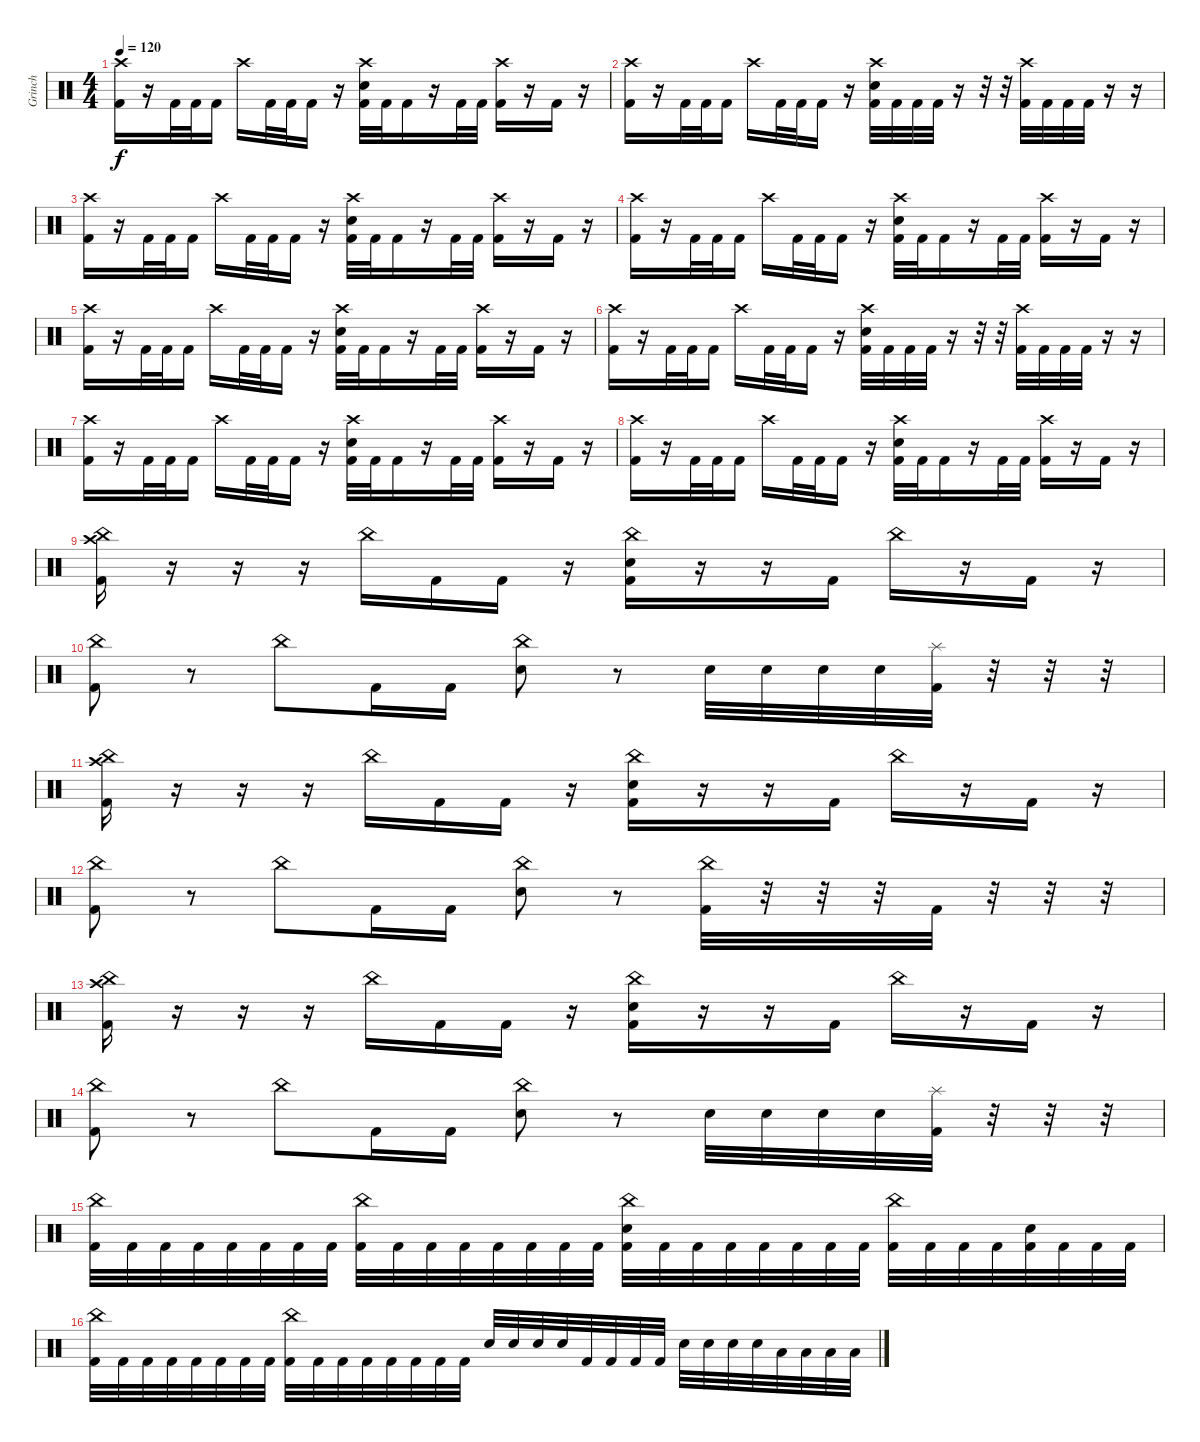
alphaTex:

\track ("Grinch" "Grinch") {instrument percussion}
\staff {score}
\articulation defaults
\ts (4 4)
\tempo 120
\clef neutral
\ks c
("Crash high (hit)" "Kick (hit) 2").16{dy f} r.16 "Kick (hit) 2".32 "Kick (hit) 2".32 "Kick (hit) 2".16 "Crash high (hit)".16 "Kick (hit) 2".32 "Kick (hit) 2".32 "Kick (hit) 2".16 r.16 ("Crash high (hit)" "Snare (hit) 2" "Kick (hit) 2").32 "Kick (hit) 2".32 "Kick (hit) 2".16 r.16 "Kick (hit) 2".32 "Kick (hit) 2".32 ("Crash high (hit)" "Kick (hit) 2").16 r.16 "Kick (hit) 2".16 r.16 |
("Crash high (hit)" "Kick (hit) 2").16 r.16 "Kick (hit) 2".32 "Kick (hit) 2".32 "Kick (hit) 2".16 "Crash high (hit)".16 "Kick (hit) 2".32 "Kick (hit) 2".32 "Kick (hit) 2".16 r.16 ("Crash high (hit)" "Snare (hit) 2" "Kick (hit) 2").32 "Kick (hit) 2".32 "Kick (hit) 2".32 "Kick (hit) 2".32 r.16 r.32 r.32 ("Crash high (hit)" "Kick (hit) 2").32 "Kick (hit) 2".32 "Kick (hit) 2".32 "Kick (hit) 2".32 r.16 r.16 |
("Crash high (hit)" "Kick (hit) 2").16 r.16 "Kick (hit) 2".32 "Kick (hit) 2".32 "Kick (hit) 2".16 "Crash high (hit)".16 "Kick (hit) 2".32 "Kick (hit) 2".32 "Kick (hit) 2".16 r.16 ("Crash high (hit)" "Snare (hit) 2" "Kick (hit) 2").32 "Kick (hit) 2".32 "Kick (hit) 2".16 r.16 "Kick (hit) 2".32 "Kick (hit) 2".32 ("Crash high (hit)" "Kick (hit) 2").16 r.16 "Kick (hit) 2".16 r.16 |
("Crash high (hit)" "Kick (hit) 2").16 r.16 "Kick (hit) 2".32 "Kick (hit) 2".32 "Kick (hit) 2".16 "Crash high (hit)".16 "Kick (hit) 2".32 "Kick (hit) 2".32 "Kick (hit) 2".16 r.16 ("Crash high (hit)" "Snare (hit) 2" "Kick (hit) 2").32 "Kick (hit) 2".32 "Kick (hit) 2".16 r.16 "Kick (hit) 2".32 "Kick (hit) 2".32 ("Crash high (hit)" "Kick (hit) 2").16 r.16 "Kick (hit) 2".16 r.16 |
("Crash high (hit)" "Kick (hit) 2").16 r.16 "Kick (hit) 2".32 "Kick (hit) 2".32 "Kick (hit) 2".16 "Crash high (hit)".16 "Kick (hit) 2".32 "Kick (hit) 2".32 "Kick (hit) 2".16 r.16 ("Crash high (hit)" "Snare (hit) 2" "Kick (hit) 2").32 "Kick (hit) 2".32 "Kick (hit) 2".16 r.16 "Kick (hit) 2".32 "Kick (hit) 2".32 ("Crash high (hit)" "Kick (hit) 2").16 r.16 "Kick (hit) 2".16 r.16 |
("Crash high (hit)" "Kick (hit) 2").16 r.16 "Kick (hit) 2".32 "Kick (hit) 2".32 "Kick (hit) 2".16 "Crash high (hit)".16 "Kick (hit) 2".32 "Kick (hit) 2".32 "Kick (hit) 2".16 r.16 ("Crash high (hit)" "Snare (hit) 2" "Kick (hit) 2").32 "Kick (hit) 2".32 "Kick (hit) 2".32 "Kick (hit) 2".32 r.16 r.32 r.32 ("Crash high (hit)" "Kick (hit) 2").32 "Kick (hit) 2".32 "Kick (hit) 2".32 "Kick (hit) 2".32 r.16 r.16 |
("Crash high (hit)" "Kick (hit) 2").16 r.16 "Kick (hit) 2".32 "Kick (hit) 2".32 "Kick (hit) 2".16 "Crash high (hit)".16 "Kick (hit) 2".32 "Kick (hit) 2".32 "Kick (hit) 2".16 r.16 ("Crash high (hit)" "Snare (hit) 2" "Kick (hit) 2").32 "Kick (hit) 2".32 "Kick (hit) 2".16 r.16 "Kick (hit) 2".32 "Kick (hit) 2".32 ("Crash high (hit)" "Kick (hit) 2").16 r.16 "Kick (hit) 2".16 r.16 |
("Crash high (hit)" "Kick (hit) 2").16 r.16 "Kick (hit) 2".32 "Kick (hit) 2".32 "Kick (hit) 2".16 "Crash high (hit)".16 "Kick (hit) 2".32 "Kick (hit) 2".32 "Kick (hit) 2".16 r.16 ("Crash high (hit)" "Snare (hit) 2" "Kick (hit) 2").32 "Kick (hit) 2".32 "Kick (hit) 2".16 r.16 "Kick (hit) 2".32 "Kick (hit) 2".32 ("Crash high (hit)" "Kick (hit) 2").16 r.16 "Kick (hit) 2".16 r.16 |
("Crash high (hit)" "China (hit)" "Kick (hit) 2").16 r.16 r.16 r.16 "China (hit)".16 "Kick (hit) 2".16 "Kick (hit) 2".16 r.16 ("China (hit)" "Snare (hit) 2" "Kick (hit) 2").16 r.16 r.16 "Kick (hit) 2".16 "China (hit)".16 r.16 "Kick (hit) 2".16 r.16 |
("China (hit)" "Kick (hit) 2").8 r.8 "China (hit)".8 "Kick (hit) 2".16 "Kick (hit) 2".16 ("China (hit)" "Snare (hit) 2").8 r.8 "Snare (hit) 2".32 "Snare (hit) 2".32 "Snare (hit) 2".32 "Snare (hit) 2".32 ("Splash (hit)" "Kick (hit) 2").32 r.32 r.32 r.32 |
("Crash high (hit)" "China (hit)" "Kick (hit) 2").16 r.16 r.16 r.16 "China (hit)".16 "Kick (hit) 2".16 "Kick (hit) 2".16 r.16 ("China (hit)" "Snare (hit) 2" "Kick (hit) 2").16 r.16 r.16 "Kick (hit) 2".16 "China (hit)".16 r.16 "Kick (hit) 2".16 r.16 |
("China (hit)" "Kick (hit) 2").8 r.8 "China (hit)".8 "Kick (hit) 2".16 "Kick (hit) 2".16 ("China (hit)" "Snare (hit) 2").8 r.8 ("China (hit)" "Kick (hit) 2").32 r.32 r.32 r.32 "Kick (hit) 2".32 r.32 r.32 r.32 |
("Crash high (hit)" "China (hit)" "Kick (hit) 2").16 r.16 r.16 r.16 "China (hit)".16 "Kick (hit) 2".16 "Kick (hit) 2".16 r.16 ("China (hit)" "Snare (hit) 2" "Kick (hit) 2").16 r.16 r.16 "Kick (hit) 2".16 "China (hit)".16 r.16 "Kick (hit) 2".16 r.16 |
("China (hit)" "Kick (hit) 2").8 r.8 "China (hit)".8 "Kick (hit) 2".16 "Kick (hit) 2".16 ("China (hit)" "Snare (hit) 2").8 r.8 "Snare (hit) 2".32 "Snare (hit) 2".32 "Snare (hit) 2".32 "Snare (hit) 2".32 ("Splash (hit)" "Kick (hit) 2").32 r.32 r.32 r.32 |
("China (hit)" "Kick (hit) 2").32 "Kick (hit) 2".32 "Kick (hit) 2".32 "Kick (hit) 2".32 "Kick (hit) 2".32 "Kick (hit) 2".32 "Kick (hit) 2".32 "Kick (hit) 2".32 ("China (hit)" "Kick (hit) 2").32 "Kick (hit) 2".32 "Kick (hit) 2".32 "Kick (hit) 2".32 "Kick (hit) 2".32 "Kick (hit) 2".32 "Kick (hit) 2".32 "Kick (hit) 2".32 ("China (hit)" "Snare (hit) 2" "Kick (hit) 2").32 "Kick (hit) 2".32 "Kick (hit) 2".32 "Kick (hit) 2".32 "Kick (hit) 2".32 "Kick (hit) 2".32 "Kick (hit) 2".32 "Kick (hit) 2".32 ("China (hit)" "Kick (hit) 2").32 "Kick (hit) 2".32 "Kick (hit) 2".32 "Kick (hit) 2".32 ("Snare (hit) 2" "Kick (hit) 2").32 "Kick (hit) 2".32 "Kick (hit) 2".32 "Kick (hit) 2".32 |
("China (hit)" "Kick (hit) 2").32 "Kick (hit) 2".32 "Kick (hit) 2".32 "Kick (hit) 2".32 "Kick (hit) 2".32 "Kick (hit) 2".32 "Kick (hit) 2".32 "Kick (hit) 2".32 ("China (hit)" "Kick (hit) 2").32 "Kick (hit) 2".32 "Kick (hit) 2".32 "Kick (hit) 2".32 "Kick (hit) 2".32 "Kick (hit) 2".32 "Kick (hit) 2".32 "Kick (hit) 2".32 "Snare (hit) 2".32 "Snare (hit) 2".32 "Snare (hit) 2".32 "Snare (hit) 2".32 "Kick (hit) 2".32 "Kick (hit) 2".32 "Kick (hit) 2".32 "Kick (hit) 2".32 "Snare (hit) 2".32 "Snare (hit) 2".32 "Snare (hit) 2".32 "Snare (hit) 2".32 "Low Tom (hit)".32 "Low Tom (hit)".32 "Low Tom (hit)".32 "Low Tom (hit)".32
